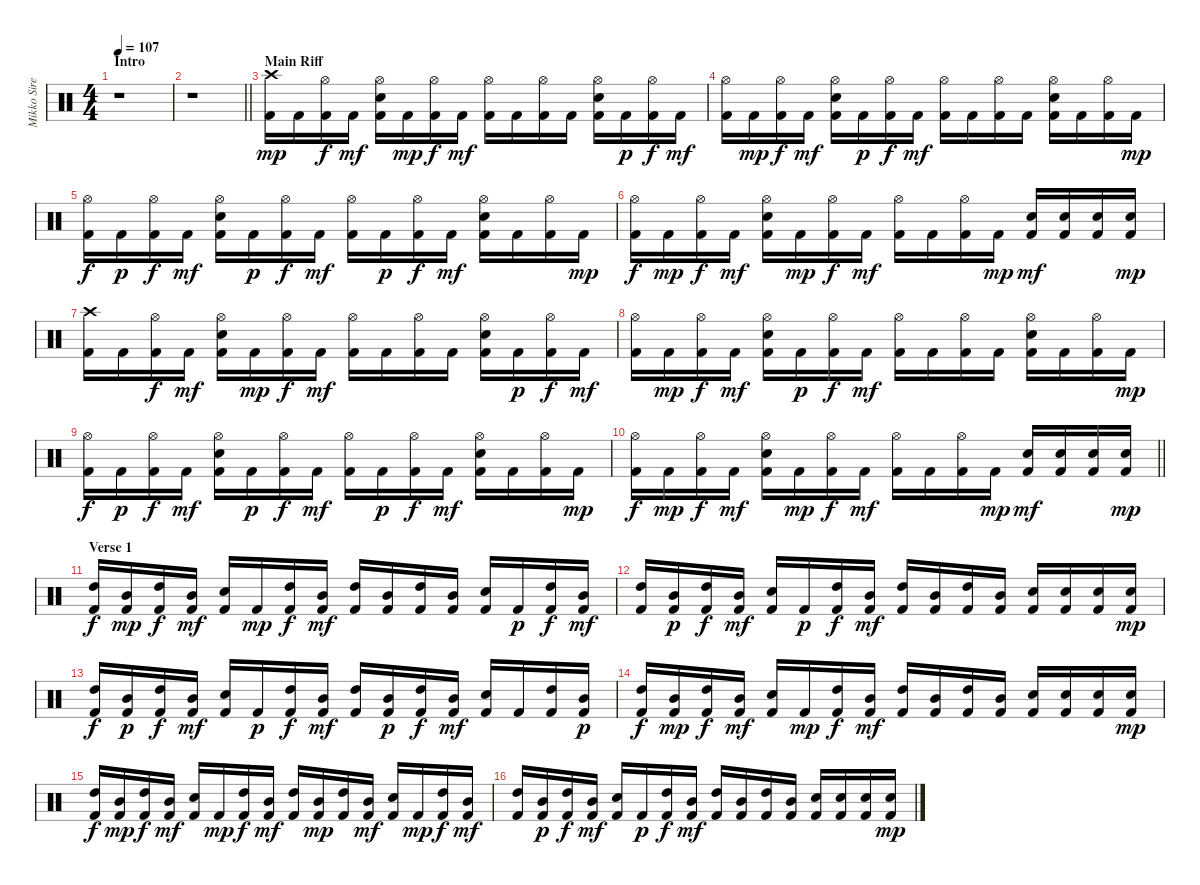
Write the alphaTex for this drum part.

\track ("Mikko Siren" "Mikko Sire") {instrument percussion}
\staff {score}
\articulation defaults
\ts (4 4)
\section ("" "Intro")
\tempo 107
\clef neutral
\ks c
r.1{dy mp} |
\barLineRight lightlight
r.1 |
\section ("" "Main Riff")
("Kick (hit) 2" "Crash high (hit)").16 "Kick (hit) 2".16 ("Kick (hit) 2" "Hi-Hat (open)").16{dy f} "Kick (hit) 2".16{dy mf} ("Kick (hit) 2" "Electric Snare (hit)" "Hi-Hat (open)").16 "Kick (hit) 2".16{dy mp} ("Kick (hit) 2" "Hi-Hat (open)").16{dy f} "Kick (hit) 2".16{dy mf} ("Kick (hit) 2" "Hi-Hat (open)").16 "Kick (hit) 2".16 ("Kick (hit) 2" "Hi-Hat (open)").16 "Kick (hit) 2".16 ("Kick (hit) 2" "Electric Snare (hit)" "Hi-Hat (open)").16 "Kick (hit) 2".16{dy p} ("Kick (hit) 2" "Hi-Hat (open)").16{dy f} "Kick (hit) 2".16{dy mf} |
("Kick (hit) 2" "Hi-Hat (open)").16 "Kick (hit) 2".16{dy mp} ("Kick (hit) 2" "Hi-Hat (open)").16{dy f} "Kick (hit) 2".16{dy mf} ("Kick (hit) 2" "Electric Snare (hit)" "Hi-Hat (open)").16 "Kick (hit) 2".16{dy p} ("Kick (hit) 2" "Hi-Hat (open)").16{dy f} "Kick (hit) 2".16{dy mf} ("Kick (hit) 2" "Hi-Hat (open)").16 "Kick (hit) 2".16 ("Kick (hit) 2" "Hi-Hat (open)").16 "Kick (hit) 2".16 ("Kick (hit) 2" "Electric Snare (hit)" "Hi-Hat (open)").16 "Kick (hit) 2".16 ("Kick (hit) 2" "Hi-Hat (open)").16 "Kick (hit) 2".16{dy mp} |
("Kick (hit) 2" "Hi-Hat (open)").16{dy f} "Kick (hit) 2".16{dy p} ("Kick (hit) 2" "Hi-Hat (open)").16{dy f} "Kick (hit) 2".16{dy mf} ("Kick (hit) 2" "Electric Snare (hit)" "Hi-Hat (open)").16 "Kick (hit) 2".16{dy p} ("Kick (hit) 2" "Hi-Hat (open)").16{dy f} "Kick (hit) 2".16{dy mf} ("Kick (hit) 2" "Hi-Hat (open)").16 "Kick (hit) 2".16{dy p} ("Kick (hit) 2" "Hi-Hat (open)").16{dy f} "Kick (hit) 2".16{dy mf} ("Kick (hit) 2" "Electric Snare (hit)" "Hi-Hat (open)").16 "Kick (hit) 2".16 ("Kick (hit) 2" "Hi-Hat (open)").16 "Kick (hit) 2".16{dy mp} |
("Kick (hit) 2" "Hi-Hat (open)").16{dy f} "Kick (hit) 2".16{dy mp} ("Kick (hit) 2" "Hi-Hat (open)").16{dy f} "Kick (hit) 2".16{dy mf} ("Kick (hit) 2" "Electric Snare (hit)" "Hi-Hat (open)").16 "Kick (hit) 2".16{dy mp} ("Kick (hit) 2" "Hi-Hat (open)").16{dy f} "Kick (hit) 2".16{dy mf} ("Kick (hit) 2" "Hi-Hat (open)").16 "Kick (hit) 2".16 ("Kick (hit) 2" "Hi-Hat (open)").16 "Kick (hit) 2".16{dy mp} ("Kick (hit) 2" "Electric Snare (hit)").16{dy mf} ("Kick (hit) 2" "Electric Snare (hit)").16 ("Kick (hit) 2" "Electric Snare (hit)").16 ("Kick (hit) 2" "Electric Snare (hit)").16{dy mp} |
("Kick (hit) 2" "Crash high (hit)").16 "Kick (hit) 2".16 ("Kick (hit) 2" "Hi-Hat (open)").16{dy f} "Kick (hit) 2".16{dy mf} ("Kick (hit) 2" "Electric Snare (hit)" "Hi-Hat (open)").16 "Kick (hit) 2".16{dy mp} ("Kick (hit) 2" "Hi-Hat (open)").16{dy f} "Kick (hit) 2".16{dy mf} ("Kick (hit) 2" "Hi-Hat (open)").16 "Kick (hit) 2".16 ("Kick (hit) 2" "Hi-Hat (open)").16 "Kick (hit) 2".16 ("Kick (hit) 2" "Electric Snare (hit)" "Hi-Hat (open)").16 "Kick (hit) 2".16{dy p} ("Kick (hit) 2" "Hi-Hat (open)").16{dy f} "Kick (hit) 2".16{dy mf} |
("Kick (hit) 2" "Hi-Hat (open)").16 "Kick (hit) 2".16{dy mp} ("Kick (hit) 2" "Hi-Hat (open)").16{dy f} "Kick (hit) 2".16{dy mf} ("Kick (hit) 2" "Electric Snare (hit)" "Hi-Hat (open)").16 "Kick (hit) 2".16{dy p} ("Kick (hit) 2" "Hi-Hat (open)").16{dy f} "Kick (hit) 2".16{dy mf} ("Kick (hit) 2" "Hi-Hat (open)").16 "Kick (hit) 2".16 ("Kick (hit) 2" "Hi-Hat (open)").16 "Kick (hit) 2".16 ("Kick (hit) 2" "Electric Snare (hit)" "Hi-Hat (open)").16 "Kick (hit) 2".16 ("Kick (hit) 2" "Hi-Hat (open)").16 "Kick (hit) 2".16{dy mp} |
("Kick (hit) 2" "Hi-Hat (open)").16{dy f} "Kick (hit) 2".16{dy p} ("Kick (hit) 2" "Hi-Hat (open)").16{dy f} "Kick (hit) 2".16{dy mf} ("Kick (hit) 2" "Electric Snare (hit)" "Hi-Hat (open)").16 "Kick (hit) 2".16{dy p} ("Kick (hit) 2" "Hi-Hat (open)").16{dy f} "Kick (hit) 2".16{dy mf} ("Kick (hit) 2" "Hi-Hat (open)").16 "Kick (hit) 2".16{dy p} ("Kick (hit) 2" "Hi-Hat (open)").16{dy f} "Kick (hit) 2".16{dy mf} ("Kick (hit) 2" "Electric Snare (hit)" "Hi-Hat (open)").16 "Kick (hit) 2".16 ("Kick (hit) 2" "Hi-Hat (open)").16 "Kick (hit) 2".16{dy mp} |
\barLineRight lightlight
("Kick (hit) 2" "Hi-Hat (open)").16{dy f} "Kick (hit) 2".16{dy mp} ("Kick (hit) 2" "Hi-Hat (open)").16{dy f} "Kick (hit) 2".16{dy mf} ("Kick (hit) 2" "Electric Snare (hit)" "Hi-Hat (open)").16 "Kick (hit) 2".16{dy mp} ("Kick (hit) 2" "Hi-Hat (open)").16{dy f} "Kick (hit) 2".16{dy mf} ("Kick (hit) 2" "Hi-Hat (open)").16 "Kick (hit) 2".16 ("Kick (hit) 2" "Hi-Hat (open)").16 "Kick (hit) 2".16{dy mp} ("Kick (hit) 2" "Electric Snare (hit)").16{dy mf} ("Kick (hit) 2" "Electric Snare (hit)").16 ("Kick (hit) 2" "Electric Snare (hit)").16 ("Kick (hit) 2" "Electric Snare (hit)").16{dy mp} |
\section ("" "Verse 1")
("Kick (hit) 2" "High Tom (hit)").16{dy f} ("Kick (hit) 2" "Mid Tom (hit)").16{dy mp} ("Kick (hit) 2" "High Tom (hit)").16{dy f} ("Kick (hit) 2" "Mid Tom (hit)").16{dy mf} ("Kick (hit) 2" "Electric Snare (hit)").16 "Kick (hit) 2".16{dy mp} ("Kick (hit) 2" "High Tom (hit)").16{dy f} ("Kick (hit) 2" "Mid Tom (hit)").16{dy mf} ("Kick (hit) 2" "High Tom (hit)").16 ("Kick (hit) 2" "Mid Tom (hit)").16 ("Kick (hit) 2" "High Tom (hit)").16 ("Kick (hit) 2" "Mid Tom (hit)").16 ("Kick (hit) 2" "Electric Snare (hit)").16 "Kick (hit) 2".16{dy p} ("Kick (hit) 2" "High Tom (hit)").16{dy f} ("Kick (hit) 2" "Mid Tom (hit)").16{dy mf} |
("Kick (hit) 2" "High Tom (hit)").16 ("Kick (hit) 2" "Mid Tom (hit)").16{dy p} ("Kick (hit) 2" "High Tom (hit)").16{dy f} ("Kick (hit) 2" "Mid Tom (hit)").16{dy mf} ("Kick (hit) 2" "Electric Snare (hit)").16 "Kick (hit) 2".16{dy p} ("Kick (hit) 2" "High Tom (hit)").16{dy f} ("Kick (hit) 2" "Mid Tom (hit)").16{dy mf} ("Kick (hit) 2" "High Tom (hit)").16 ("Kick (hit) 2" "Mid Tom (hit)").16 ("Kick (hit) 2" "High Tom (hit)").16 ("Kick (hit) 2" "Mid Tom (hit)").16 ("Kick (hit) 2" "Electric Snare (hit)").16 ("Kick (hit) 2" "Electric Snare (hit)").16 ("Kick (hit) 2" "Electric Snare (hit)").16 ("Kick (hit) 2" "Electric Snare (hit)").16{dy mp} |
("Kick (hit) 2" "High Tom (hit)").16{dy f} ("Kick (hit) 2" "Mid Tom (hit)").16{dy p} ("Kick (hit) 2" "High Tom (hit)").16{dy f} ("Kick (hit) 2" "Mid Tom (hit)").16{dy mf} ("Kick (hit) 2" "Electric Snare (hit)").16 "Kick (hit) 2".16{dy p} ("Kick (hit) 2" "High Tom (hit)").16{dy f} ("Kick (hit) 2" "Mid Tom (hit)").16{dy mf} ("Kick (hit) 2" "High Tom (hit)").16 ("Kick (hit) 2" "Mid Tom (hit)").16{dy p} ("Kick (hit) 2" "High Tom (hit)").16{dy f} ("Kick (hit) 2" "Mid Tom (hit)").16{dy mf} ("Kick (hit) 2" "Electric Snare (hit)").16 "Kick (hit) 2".16 ("Kick (hit) 2" "High Tom (hit)").16 ("Kick (hit) 2" "Mid Tom (hit)").16{dy p} |
("Kick (hit) 2" "High Tom (hit)").16{dy f} ("Kick (hit) 2" "Mid Tom (hit)").16{dy mp} ("Kick (hit) 2" "High Tom (hit)").16{dy f} ("Kick (hit) 2" "Mid Tom (hit)").16{dy mf} ("Kick (hit) 2" "Electric Snare (hit)").16 "Kick (hit) 2".16{dy mp} ("Kick (hit) 2" "High Tom (hit)").16{dy f} ("Kick (hit) 2" "Mid Tom (hit)").16{dy mf} ("Kick (hit) 2" "High Tom (hit)").16 ("Kick (hit) 2" "Mid Tom (hit)").16 ("Kick (hit) 2" "High Tom (hit)").16 ("Kick (hit) 2" "Mid Tom (hit)").16 ("Kick (hit) 2" "Electric Snare (hit)").16 ("Kick (hit) 2" "Electric Snare (hit)").16 ("Kick (hit) 2" "Electric Snare (hit)").16 ("Kick (hit) 2" "Electric Snare (hit)").16{dy mp} |
("Kick (hit) 2" "High Tom (hit)").16{dy f} ("Kick (hit) 2" "Mid Tom (hit)").16{dy mp} ("Kick (hit) 2" "High Tom (hit)").16{dy f} ("Kick (hit) 2" "Mid Tom (hit)").16{dy mf} ("Kick (hit) 2" "Electric Snare (hit)").16 "Kick (hit) 2".16{dy mp} ("Kick (hit) 2" "High Tom (hit)").16{dy f} ("Kick (hit) 2" "Mid Tom (hit)").16{dy mf} ("Kick (hit) 2" "High Tom (hit)").16 ("Kick (hit) 2" "Mid Tom (hit)").16{dy mp} ("Kick (hit) 2" "High Tom (hit)").16 ("Kick (hit) 2" "Mid Tom (hit)").16{dy mf} ("Kick (hit) 2" "Electric Snare (hit)").16 "Kick (hit) 2".16{dy mp} ("Kick (hit) 2" "High Tom (hit)").16{dy f} ("Kick (hit) 2" "Mid Tom (hit)").16{dy mf} |
("Kick (hit) 2" "High Tom (hit)").16 ("Kick (hit) 2" "Mid Tom (hit)").16{dy p} ("Kick (hit) 2" "High Tom (hit)").16{dy f} ("Kick (hit) 2" "Mid Tom (hit)").16{dy mf} ("Kick (hit) 2" "Electric Snare (hit)").16 "Kick (hit) 2".16{dy p} ("Kick (hit) 2" "High Tom (hit)").16{dy f} ("Kick (hit) 2" "Mid Tom (hit)").16{dy mf} ("Kick (hit) 2" "High Tom (hit)").16 ("Kick (hit) 2" "Mid Tom (hit)").16 ("Kick (hit) 2" "High Tom (hit)").16 ("Kick (hit) 2" "Mid Tom (hit)").16 ("Kick (hit) 2" "Electric Snare (hit)").16 ("Kick (hit) 2" "Electric Snare (hit)").16 ("Kick (hit) 2" "Electric Snare (hit)").16 ("Kick (hit) 2" "Electric Snare (hit)").16{dy mp}
